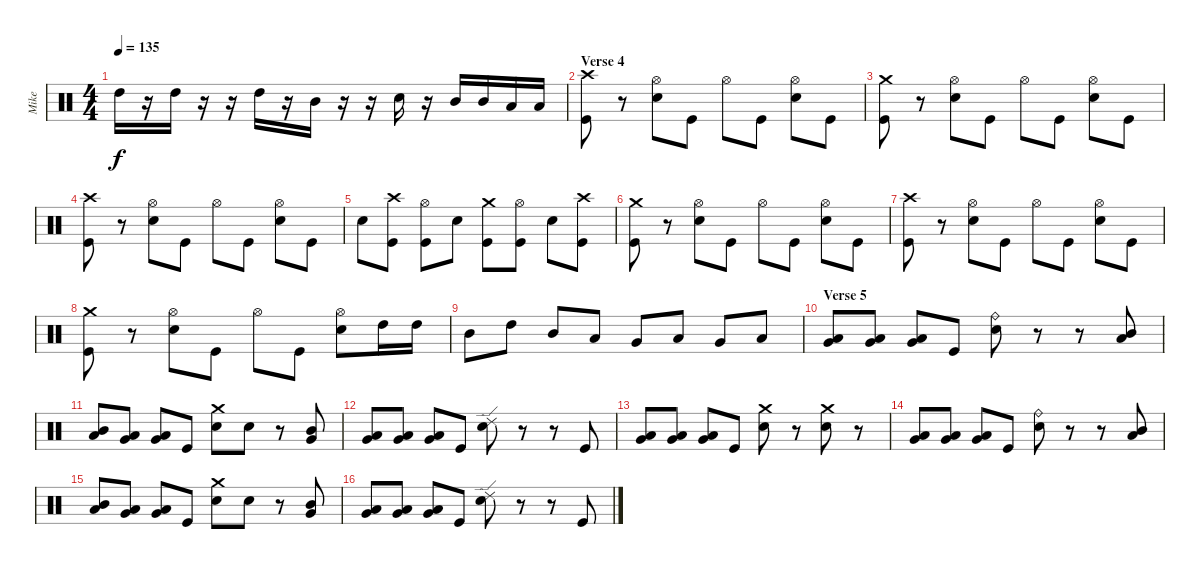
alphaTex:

\track ("Mike" "Mike") {instrument percussion}
\staff {score}
\articulation defaults
\ts (4 4)
\tempo 135
\clef neutral
\ks c "High Tom (hit)".16{dy f}
r.16 "High Tom (hit)".16 r.16 r.16 "High Tom (hit)".16 r.16 "Mid Tom (hit)".16 r.16 r.16 "Electric Snare (hit)".16 r.16 "Mid Tom (hit)".16 "Mid Tom (hit)".16 "Low Tom (hit)".16 "Low Tom (hit)".16 |
\section ("" "Verse 4")
("Crash high (hit)" "Kick (hit)").8 r.8 ("Electric Snare (hit)" "Hi-Hat (open)").8 "Kick (hit)".8 "Hi-Hat (open)".8 "Kick (hit)".8 ("Electric Snare (hit)" "Hi-Hat (open)").8 "Kick (hit)".8 |
("Crash medium (hit)" "Kick (hit)").8 r.8 ("Electric Snare (hit)" "Hi-Hat (open)").8 "Kick (hit)".8 "Hi-Hat (open)".8 "Kick (hit)".8 ("Electric Snare (hit)" "Hi-Hat (open)").8 "Kick (hit)".8 |
("Crash high (hit)" "Kick (hit)").8 r.8 ("Electric Snare (hit)" "Hi-Hat (open)").8 "Kick (hit)".8 "Hi-Hat (open)".8 "Kick (hit)".8 ("Electric Snare (hit)" "Hi-Hat (open)").8 "Kick (hit)".8 |
"Electric Snare (hit)".8 ("Crash high (hit)" "Kick (hit)").8 ("Hi-Hat (open)" "Kick (hit)").8 "Electric Snare (hit)".8 ("Crash medium (hit)" "Kick (hit)").8 ("Hi-Hat (open)" "Kick (hit)").8 "Electric Snare (hit)".8 ("Crash high (hit)" "Kick (hit)").8 |
("Crash medium (hit)" "Kick (hit)").8 r.8 ("Electric Snare (hit)" "Hi-Hat (open)").8 "Kick (hit)".8 "Hi-Hat (open)".8 "Kick (hit)".8 ("Electric Snare (hit)" "Hi-Hat (open)").8 "Kick (hit)".8 |
("Crash high (hit)" "Kick (hit)").8 r.8 ("Electric Snare (hit)" "Hi-Hat (open)").8 "Kick (hit)".8 "Hi-Hat (open)".8 "Kick (hit)".8 ("Electric Snare (hit)" "Hi-Hat (open)").8 "Kick (hit)".8 |
("Crash medium (hit)" "Kick (hit)").8 r.8 ("Electric Snare (hit)" "Hi-Hat (open)").8 "Kick (hit)".8 "Hi-Hat (open)".8 "Kick (hit)".8 ("Electric Snare (hit)" "Hi-Hat (open)").8 "High Tom (hit)".16 "High Tom (hit)".16 |
"Mid Tom (hit)".8 "High Tom (hit)".8 "Mid Tom (hit)".8 "Low Tom (hit)".8 "Very Low Tom (hit)".8 "Low Tom (hit)".8 "Very Low Tom (hit)".8 "Low Floor Tom (hit)".8 |
\section ("" "Verse 5")
("Low Tom (hit)" "Very Low Tom (hit)").8 ("Low Tom (hit)" "Very Low Tom (hit)").8 ("Low Tom (hit)" "Very Low Tom (hit)").8 "Kick (hit)".8 ("Ride (bell)" "Electric Snare (hit)").8 r.8 r.8 ("Low Tom (hit)" "Mid Tom (hit)").8 |
("Mid Tom (hit)" "Low Tom (hit)").8 ("Low Tom (hit)" "Very Low Tom (hit)").8 ("Low Tom (hit)" "Very Low Tom (hit)").8 "Kick (hit)".8 ("Crash medium (hit)" "Electric Snare (hit)").8 "Electric Snare (hit)".8 r.8 ("Mid Tom (hit)" "Very Low Tom (hit)").8 |
("Very Low Tom (hit)" "Low Tom (hit)").8 ("Very Low Tom (hit)" "Low Tom (hit)").8 ("Very Low Tom (hit)" "Low Tom (hit)").8 "Kick (hit)".8 ("Ride (edge) 2" "Electric Snare (hit)").8 r.8 r.8 "Kick (hit)".8 |
("Very Low Tom (hit)" "Low Tom (hit)").8 ("Very Low Tom (hit)" "Low Tom (hit)").8 ("Very Low Tom (hit)" "Low Tom (hit)").8 "Kick (hit)".8 ("Crash medium (hit)" "Electric Snare (hit)").8 r.8 ("Crash medium (hit)" "Electric Snare (hit)").8 r.8 |
("Low Tom (hit)" "Very Low Tom (hit)").8 ("Low Tom (hit)" "Very Low Tom (hit)").8 ("Low Tom (hit)" "Very Low Tom (hit)").8 "Kick (hit)".8 ("Ride (bell)" "Electric Snare (hit)").8 r.8 r.8 ("Low Tom (hit)" "Mid Tom (hit)").8 |
("Mid Tom (hit)" "Low Tom (hit)").8 ("Low Tom (hit)" "Very Low Tom (hit)").8 ("Low Tom (hit)" "Very Low Tom (hit)").8 "Kick (hit)".8 ("Crash medium (hit)" "Electric Snare (hit)").8 "Electric Snare (hit)".8 r.8 ("Mid Tom (hit)" "Very Low Tom (hit)").8 |
("Very Low Tom (hit)" "Low Tom (hit)").8 ("Very Low Tom (hit)" "Low Tom (hit)").8 ("Very Low Tom (hit)" "Low Tom (hit)").8 "Kick (hit)".8 ("Ride (edge) 2" "Electric Snare (hit)").8 r.8 r.8 "Kick (hit)".8
